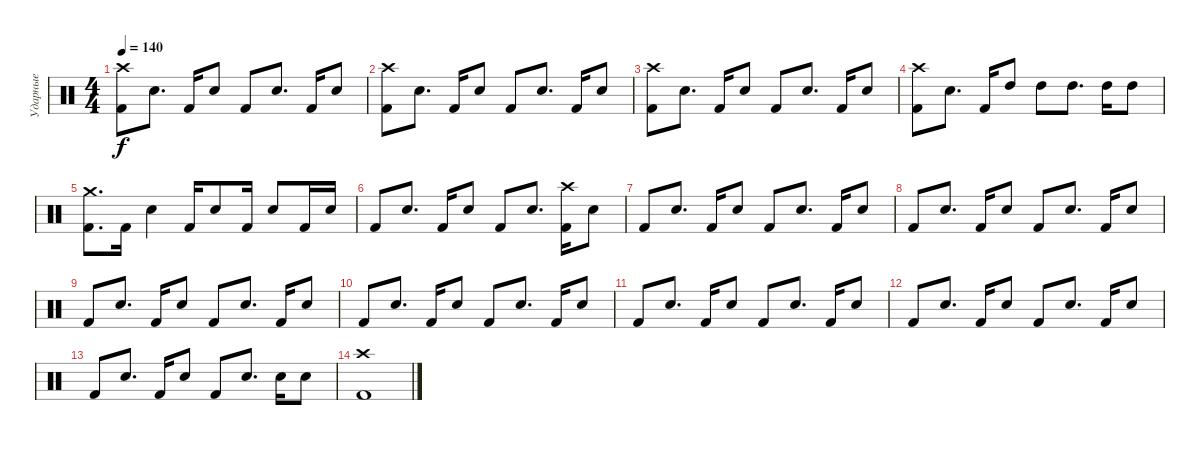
\track ("Ударные" "Ударные") {instrument percussion}
\staff {score}
\articulation defaults
\ts (4 4)
\tempo 140
\clef neutral
\ks c
("Kick (hit) 2" "Crash high (hit)").8{dy f} "Electric Snare (hit)".8{d} "Kick (hit) 2".16 "Electric Snare (hit)".8 "Kick (hit) 2".8 "Electric Snare (hit)".8{d} "Kick (hit) 2".16 "Electric Snare (hit)".8 |
("Kick (hit) 2" "Crash high (hit)").8 "Electric Snare (hit)".8{d} "Kick (hit) 2".16 "Electric Snare (hit)".8 "Kick (hit) 2".8 "Electric Snare (hit)".8{d} "Kick (hit) 2".16 "Electric Snare (hit)".8 |
("Kick (hit) 2" "Crash high (hit)").8 "Electric Snare (hit)".8{d} "Kick (hit) 2".16 "Electric Snare (hit)".8 "Kick (hit) 2".8 "Electric Snare (hit)".8{d} "Kick (hit) 2".16 "Electric Snare (hit)".8 |
("Kick (hit) 2" "Crash high (hit)").8 "Electric Snare (hit)".8{d} "Kick (hit) 2".16 "High Tom (hit)".8 "High Tom (hit)".8 "High Tom (hit)".8{d} "High Tom (hit)".16 "High Tom (hit)".8 |
("Crash medium (hit)" "Kick (hit) 2").8{d} "Kick (hit) 2".16 "Electric Snare (hit)".4 "Kick (hit) 2".16 "Electric Snare (hit)".8 "Kick (hit) 2".16 "Electric Snare (hit)".8 "Kick (hit) 2".16 "Electric Snare (hit)".16 |
"Kick (hit) 2".8 "Electric Snare (hit)".8{d} "Kick (hit) 2".16 "Electric Snare (hit)".8 "Kick (hit) 2".8 "Electric Snare (hit)".8{d} ("Kick (hit) 2" "Crash high (hit)").16 "Electric Snare (hit)".8 |
"Kick (hit) 2".8 "Electric Snare (hit)".8{d} "Kick (hit) 2".16 "Electric Snare (hit)".8 "Kick (hit) 2".8 "Electric Snare (hit)".8{d} "Kick (hit) 2".16 "Electric Snare (hit)".8 |
"Kick (hit) 2".8 "Electric Snare (hit)".8{d} "Kick (hit) 2".16 "Electric Snare (hit)".8 "Kick (hit) 2".8 "Electric Snare (hit)".8{d} "Kick (hit) 2".16 "Electric Snare (hit)".8 |
"Kick (hit) 2".8 "Electric Snare (hit)".8{d} "Kick (hit) 2".16 "Electric Snare (hit)".8 "Kick (hit) 2".8 "Electric Snare (hit)".8{d} "Kick (hit) 2".16 "Electric Snare (hit)".8 |
"Kick (hit) 2".8 "Electric Snare (hit)".8{d} "Kick (hit) 2".16 "Electric Snare (hit)".8 "Kick (hit) 2".8 "Electric Snare (hit)".8{d} "Kick (hit) 2".16 "Electric Snare (hit)".8 |
"Kick (hit) 2".8 "Electric Snare (hit)".8{d} "Kick (hit) 2".16 "Electric Snare (hit)".8 "Kick (hit) 2".8 "Electric Snare (hit)".8{d} "Kick (hit) 2".16 "Electric Snare (hit)".8 |
"Kick (hit) 2".8 "Electric Snare (hit)".8{d} "Kick (hit) 2".16 "Electric Snare (hit)".8 "Kick (hit) 2".8 "Electric Snare (hit)".8{d} "Kick (hit) 2".16 "Electric Snare (hit)".8 |
"Kick (hit) 2".8 "Electric Snare (hit)".8{d} "Kick (hit) 2".16 "Electric Snare (hit)".8 "Kick (hit) 2".8 "Electric Snare (hit)".8{d} "Electric Snare (hit)".16 "Electric Snare (hit)".8 |
("Kick (hit) 2" "Crash high (hit)").1
